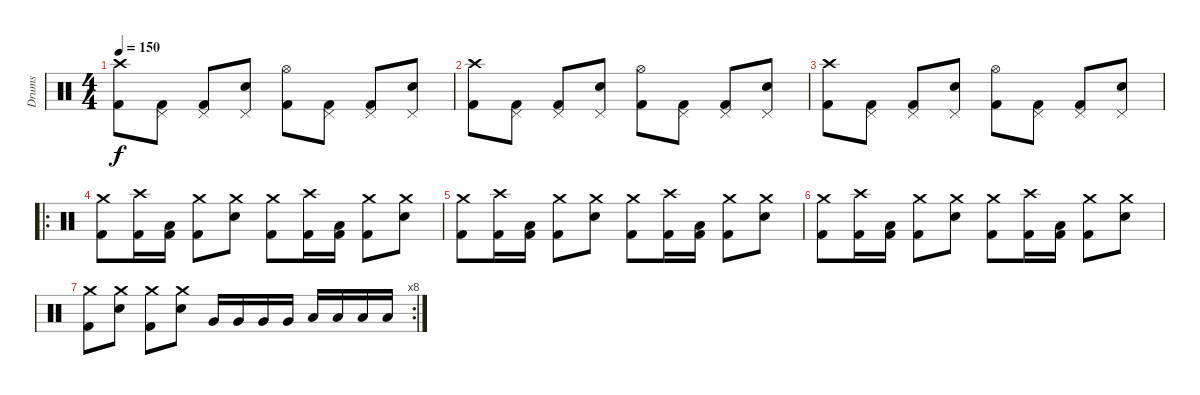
\track ("Drums" "Drums") {instrument percussion}
\staff {score}
\articulation defaults
\ts (4 4)
\tempo 150
\clef neutral
\ks c
("Crash high (hit)" "Kick (hit) 2").8{dy f} ("Pedal Hi-Hat (hit)" "Kick (hit) 2").8 ("Pedal Hi-Hat (hit)" "Kick (hit) 2").8 ("Pedal Hi-Hat (hit)" "Electric Snare (hit)").8 ("Hi-Hat (open)" "Kick (hit) 2").8 ("Pedal Hi-Hat (hit)" "Kick (hit) 2").8 ("Pedal Hi-Hat (hit)" "Kick (hit) 2").8 ("Pedal Hi-Hat (hit)" "Electric Snare (hit)").8 |
("Crash high (hit)" "Kick (hit) 2").8 ("Pedal Hi-Hat (hit)" "Kick (hit) 2").8 ("Pedal Hi-Hat (hit)" "Kick (hit) 2").8 ("Pedal Hi-Hat (hit)" "Electric Snare (hit)").8 ("Hi-Hat (open)" "Kick (hit) 2").8 ("Pedal Hi-Hat (hit)" "Kick (hit) 2").8 ("Pedal Hi-Hat (hit)" "Kick (hit) 2").8 ("Pedal Hi-Hat (hit)" "Electric Snare (hit)").8 |
("Crash high (hit)" "Kick (hit) 2").8 ("Pedal Hi-Hat (hit)" "Kick (hit) 2").8 ("Pedal Hi-Hat (hit)" "Kick (hit) 2").8 ("Pedal Hi-Hat (hit)" "Electric Snare (hit)").8 ("Hi-Hat (open)" "Kick (hit) 2").8 ("Pedal Hi-Hat (hit)" "Kick (hit) 2").8 ("Pedal Hi-Hat (hit)" "Kick (hit) 2").8 ("Pedal Hi-Hat (hit)" "Electric Snare (hit)").8 |
\ro
("Crash medium (hit)" "Kick (hit) 2").8 ("Crash high (hit)" "Kick (hit) 2").16 ("Low Tom (hit)" "Kick (hit) 2").16 ("Crash medium (hit)" "Kick (hit) 2").8 ("Crash medium (hit)" "Electric Snare (hit)").8 ("Crash medium (hit)" "Kick (hit) 2").8 ("Crash high (hit)" "Kick (hit) 2").16 ("Low Tom (hit)" "Kick (hit) 2").16 ("Crash medium (hit)" "Kick (hit) 2").8 ("Crash medium (hit)" "Electric Snare (hit)").8 |
("Crash medium (hit)" "Kick (hit) 2").8 ("Crash high (hit)" "Kick (hit) 2").16 ("Low Tom (hit)" "Kick (hit) 2").16 ("Crash medium (hit)" "Kick (hit) 2").8 ("Crash medium (hit)" "Electric Snare (hit)").8 ("Crash medium (hit)" "Kick (hit) 2").8 ("Crash high (hit)" "Kick (hit) 2").16 ("Low Tom (hit)" "Kick (hit) 2").16 ("Crash medium (hit)" "Kick (hit) 2").8 ("Crash medium (hit)" "Electric Snare (hit)").8 |
("Crash medium (hit)" "Kick (hit) 2").8 ("Crash high (hit)" "Kick (hit) 2").16 ("Low Tom (hit)" "Kick (hit) 2").16 ("Crash medium (hit)" "Kick (hit) 2").8 ("Crash medium (hit)" "Electric Snare (hit)").8 ("Crash medium (hit)" "Kick (hit) 2").8 ("Crash high (hit)" "Kick (hit) 2").16 ("Low Tom (hit)" "Kick (hit) 2").16 ("Crash medium (hit)" "Kick (hit) 2").8 ("Crash medium (hit)" "Electric Snare (hit)").8 |
\rc 8
("Crash medium (hit)" "Kick (hit) 2").8 ("Crash medium (hit)" "Electric Snare (hit)").8 ("Crash medium (hit)" "Kick (hit) 2").8 ("Crash medium (hit)" "Electric Snare (hit)").8 "Very Low Tom (hit)".16 "Very Low Tom (hit)".16 "Very Low Tom (hit)".16 "Very Low Tom (hit)".16 "Low Tom (hit)".16 "Low Tom (hit)".16 "Low Tom (hit)".16 "Low Tom (hit)".16
